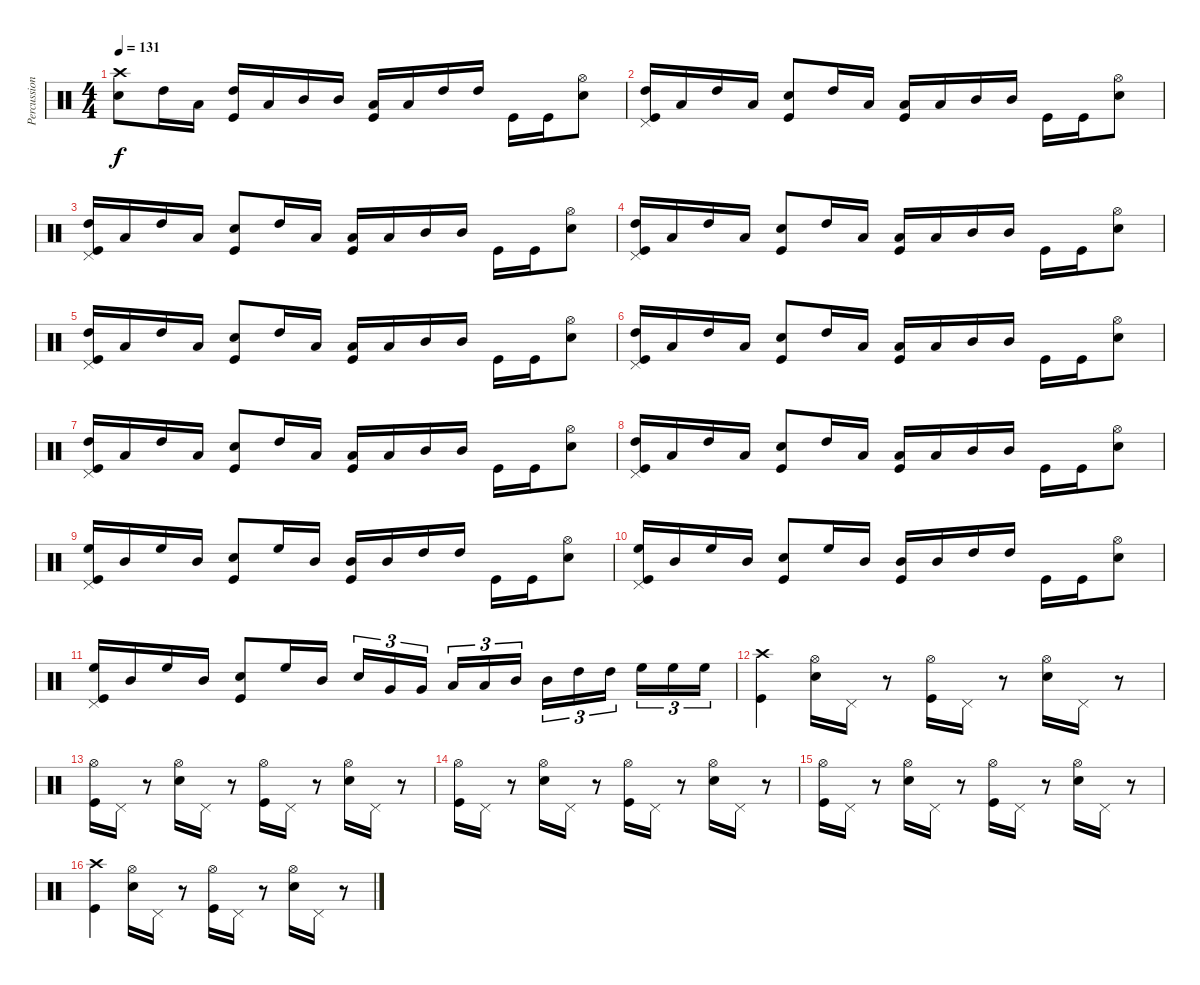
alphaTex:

\track ("Percussion" "Percussion") {instrument percussion}
\staff {score}
\articulation defaults
\ts (4 4)
\tempo 131
\clef neutral
\ks c
("Snare (hit) 2" "Crash high (hit)").8{dy f} "High Tom (hit)".16 "Low Tom (hit)".16 ("High Tom (hit)" "Kick (hit)").16 "Low Tom (hit)".16 "Mid Tom (hit)".16 "Mid Tom (hit)".16 ("Kick (hit)" "Low Tom (hit)").16 "Low Tom (hit)".16 "High Tom (hit)".16 "High Tom (hit)".16 "Kick (hit)".16 "Kick (hit)".16 ("Snare (hit) 2" "Hi-Hat (open)").8 |
("High Tom (hit)" "Kick (hit)" "Pedal Hi-Hat (hit)").16 "Low Tom (hit)".16 "High Tom (hit)".16 "Low Tom (hit)".16 ("Kick (hit)" "Snare (hit) 2").8 "High Tom (hit)".16 "Low Tom (hit)".16 ("Low Tom (hit)" "Kick (hit)").16 "Low Tom (hit)".16 "Mid Tom (hit)".16 "Mid Tom (hit)".16 "Kick (hit)".16 "Kick (hit)".16 ("Snare (hit) 2" "Hi-Hat (open)").8 |
("High Tom (hit)" "Kick (hit)" "Pedal Hi-Hat (hit)").16 "Low Tom (hit)".16 "High Tom (hit)".16 "Low Tom (hit)".16 ("Kick (hit)" "Snare (hit) 2").8 "High Tom (hit)".16 "Low Tom (hit)".16 ("Low Tom (hit)" "Kick (hit)").16 "Low Tom (hit)".16 "Mid Tom (hit)".16 "Mid Tom (hit)".16 "Kick (hit)".16 "Kick (hit)".16 ("Snare (hit) 2" "Hi-Hat (open)").8 |
("High Tom (hit)" "Kick (hit)" "Pedal Hi-Hat (hit)").16 "Low Tom (hit)".16 "High Tom (hit)".16 "Low Tom (hit)".16 ("Kick (hit)" "Snare (hit) 2").8 "High Tom (hit)".16 "Low Tom (hit)".16 ("Low Tom (hit)" "Kick (hit)").16 "Low Tom (hit)".16 "Mid Tom (hit)".16 "Mid Tom (hit)".16 "Kick (hit)".16 "Kick (hit)".16 ("Snare (hit) 2" "Hi-Hat (open)").8 |
("High Tom (hit)" "Kick (hit)" "Pedal Hi-Hat (hit)").16 "Low Tom (hit)".16 "High Tom (hit)".16 "Low Tom (hit)".16 ("Kick (hit)" "Snare (hit) 2").8 "High Tom (hit)".16 "Low Tom (hit)".16 ("Low Tom (hit)" "Kick (hit)").16 "Low Tom (hit)".16 "Mid Tom (hit)".16 "Mid Tom (hit)".16 "Kick (hit)".16 "Kick (hit)".16 ("Snare (hit) 2" "Hi-Hat (open)").8 |
("High Tom (hit)" "Kick (hit)" "Pedal Hi-Hat (hit)").16 "Low Tom (hit)".16 "High Tom (hit)".16 "Low Tom (hit)".16 ("Kick (hit)" "Snare (hit) 2").8 "High Tom (hit)".16 "Low Tom (hit)".16 ("Low Tom (hit)" "Kick (hit)").16 "Low Tom (hit)".16 "Mid Tom (hit)".16 "Mid Tom (hit)".16 "Kick (hit)".16 "Kick (hit)".16 ("Snare (hit) 2" "Hi-Hat (open)").8 |
("High Tom (hit)" "Kick (hit)" "Pedal Hi-Hat (hit)").16 "Low Tom (hit)".16 "High Tom (hit)".16 "Low Tom (hit)".16 ("Kick (hit)" "Snare (hit) 2").8 "High Tom (hit)".16 "Low Tom (hit)".16 ("Low Tom (hit)" "Kick (hit)").16 "Low Tom (hit)".16 "Mid Tom (hit)".16 "Mid Tom (hit)".16 "Kick (hit)".16 "Kick (hit)".16 ("Snare (hit) 2" "Hi-Hat (open)").8 |
("High Tom (hit)" "Kick (hit)" "Pedal Hi-Hat (hit)").16 "Low Tom (hit)".16 "High Tom (hit)".16 "Low Tom (hit)".16 ("Kick (hit)" "Snare (hit) 2").8 "High Tom (hit)".16 "Low Tom (hit)".16 ("Low Tom (hit)" "Kick (hit)").16 "Low Tom (hit)".16 "Mid Tom (hit)".16 "Mid Tom (hit)".16 "Kick (hit)".16 "Kick (hit)".16 ("Snare (hit) 2" "Hi-Hat (open)").8 |
("High Floor Tom (hit)" "Kick (hit)" "Pedal Hi-Hat (hit)").16 "Mid Tom (hit)".16 "High Floor Tom (hit)".16 "Mid Tom (hit)".16 ("Kick (hit)" "Snare (hit) 2").8 "High Floor Tom (hit)".16 "Mid Tom (hit)".16 ("Mid Tom (hit)" "Kick (hit)").16 "Mid Tom (hit)".16 "High Tom (hit)".16 "High Tom (hit)".16 "Kick (hit)".16 "Kick (hit)".16 ("Snare (hit) 2" "Hi-Hat (open)").8 |
("High Floor Tom (hit)" "Kick (hit)" "Pedal Hi-Hat (hit)").16 "Mid Tom (hit)".16 "High Floor Tom (hit)".16 "Mid Tom (hit)".16 ("Kick (hit)" "Snare (hit) 2").8 "High Floor Tom (hit)".16 "Mid Tom (hit)".16 ("Mid Tom (hit)" "Kick (hit)").16 "Mid Tom (hit)".16 "High Tom (hit)".16 "High Tom (hit)".16 "Kick (hit)".16 "Kick (hit)".16 ("Snare (hit) 2" "Hi-Hat (open)").8 |
("High Floor Tom (hit)" "Kick (hit)" "Pedal Hi-Hat (hit)").16 "Mid Tom (hit)".16 "High Floor Tom (hit)".16 "Mid Tom (hit)".16 ("Kick (hit)" "Snare (hit) 2").8 "High Floor Tom (hit)".16 "Mid Tom (hit)".16 "Snare (hit) 2".16{tu (3 2)} "Very Low Tom (hit)".16{tu (3 2)} "Very Low Tom (hit)".16{tu (3 2)} "Low Tom (hit)".16{tu (3 2)} "Low Tom (hit)".16{tu (3 2)} "Mid Tom (hit)".16{tu (3 2)} "Mid Tom (hit)".16{tu (3 2)} "High Tom (hit)".16{tu (3 2)} "High Tom (hit)".16{tu (3 2)} "High Floor Tom (hit)".16{tu (3 2)} "High Floor Tom (hit)".16{tu (3 2)} "High Floor Tom (hit)".16{tu (3 2)} |
("Crash high (hit)" "Kick (hit)").4 ("Hi-Hat (open)" "Snare (hit) 2").16 "Pedal Hi-Hat (hit)".16 r.8 ("Hi-Hat (open)" "Kick (hit)").16 "Pedal Hi-Hat (hit)".16 r.8 ("Hi-Hat (open)" "Snare (hit) 2").16 "Pedal Hi-Hat (hit)".16 r.8 |
("Hi-Hat (open)" "Kick (hit)").16 "Pedal Hi-Hat (hit)".16 r.8 ("Hi-Hat (open)" "Snare (hit) 2").16 "Pedal Hi-Hat (hit)".16 r.8 ("Hi-Hat (open)" "Kick (hit)").16 "Pedal Hi-Hat (hit)".16 r.8 ("Hi-Hat (open)" "Snare (hit) 2").16 "Pedal Hi-Hat (hit)".16 r.8 |
("Hi-Hat (open)" "Kick (hit)").16 "Pedal Hi-Hat (hit)".16 r.8 ("Hi-Hat (open)" "Snare (hit) 2").16 "Pedal Hi-Hat (hit)".16 r.8 ("Hi-Hat (open)" "Kick (hit)").16 "Pedal Hi-Hat (hit)".16 r.8 ("Hi-Hat (open)" "Snare (hit) 2").16 "Pedal Hi-Hat (hit)".16 r.8 |
("Hi-Hat (open)" "Kick (hit)").16 "Pedal Hi-Hat (hit)".16 r.8 ("Hi-Hat (open)" "Snare (hit) 2").16 "Pedal Hi-Hat (hit)".16 r.8 ("Hi-Hat (open)" "Kick (hit)").16 "Pedal Hi-Hat (hit)".16 r.8 ("Hi-Hat (open)" "Snare (hit) 2").16 "Pedal Hi-Hat (hit)".16 r.8 |
("Crash high (hit)" "Kick (hit)").4 ("Hi-Hat (open)" "Snare (hit) 2").16 "Pedal Hi-Hat (hit)".16 r.8 ("Hi-Hat (open)" "Kick (hit)").16 "Pedal Hi-Hat (hit)".16 r.8 ("Hi-Hat (open)" "Snare (hit) 2").16 "Pedal Hi-Hat (hit)".16 r.8
